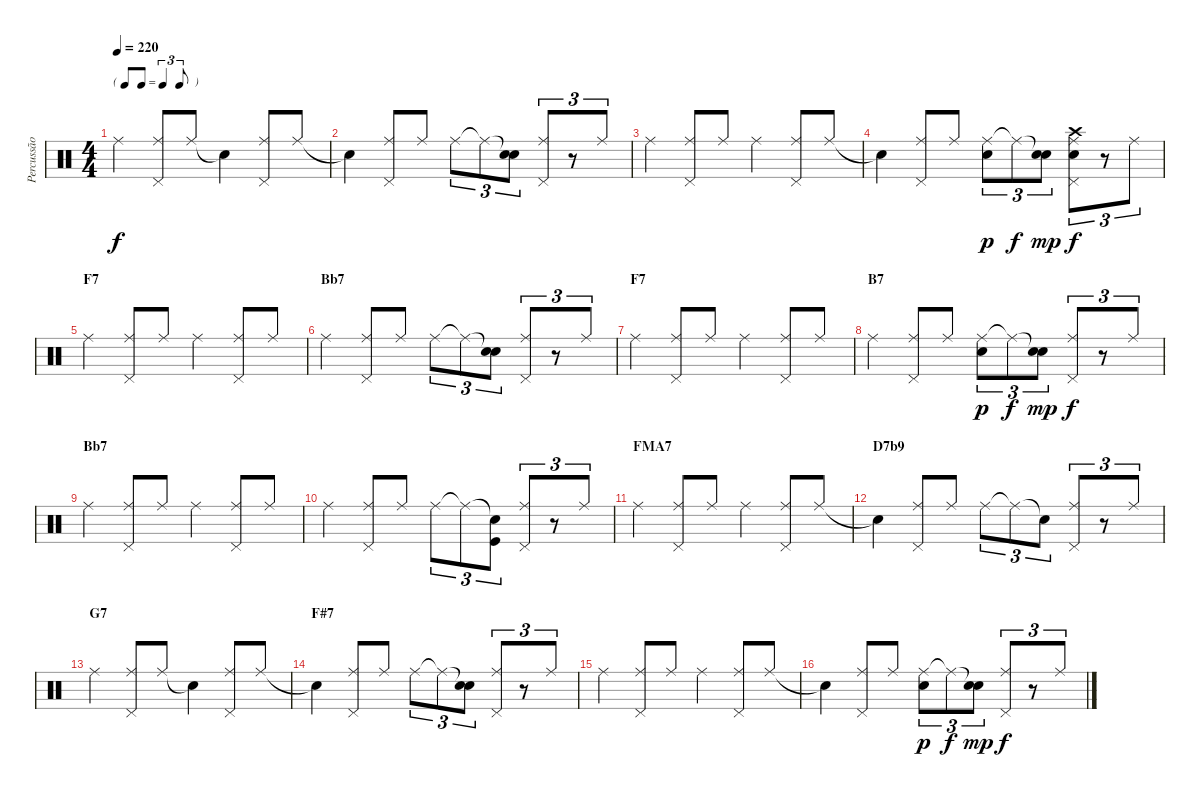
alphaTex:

\track ("Percussão" "Percussão") {instrument percussion}
\staff {score}
\articulation defaults
\ts (4 4)
\tf triplet8th
\tempo 220
\clef neutral
\ks c "Ride (middle)".4{dy f}
("Ride (middle)" "Pedal Hi-Hat (hit)").8 "Ride (middle)".8 "Snare (hit)"{t}.4 ("Ride (middle)" "Pedal Hi-Hat (hit)").8 "Ride (middle)".8 |
"Snare (hit)"{t}.4 ("Ride (middle)" "Pedal Hi-Hat (hit)").8 "Ride (middle)".8 "Ride (middle)".8{tu (3 2)} "Ride (middle)"{t}.8{tu (3 2)} ("Snare (hit)"{t} "Electric Snare (hit)").8{tu (3 2)} ("Ride (middle)" "Pedal Hi-Hat (hit)").8{tu (3 2)} r.8{tu (3 2)} "Ride (middle)".8{tu (3 2)} |
"Ride (middle)".4 ("Ride (middle)" "Pedal Hi-Hat (hit)").8 "Ride (middle)".8 "Ride (middle)".4 ("Ride (middle)" "Pedal Hi-Hat (hit)").8 "Ride (middle)".8 |
"Snare (hit)"{t}.4 ("Ride (middle)" "Pedal Hi-Hat (hit)").8 "Ride (middle)".8 ("Ride (middle)" "Electric Snare (hit)").8{tu (3 2) dy p} "Ride (middle)"{t}.8{tu (3 2) dy f} ("Snare (hit)"{t} "Electric Snare (hit)").8{tu (3 2) dy mp} ("Ride (middle)" "Crash high (hit)" "Electric Snare (hit)" "Pedal Hi-Hat (hit)").8{tu (3 2) dy f} r.8{tu (3 2)} "Ride (middle)".8{tu (3 2)} |
\section ("" "F7")
"Ride (middle)".4 ("Ride (middle)" "Pedal Hi-Hat (hit)").8 "Ride (middle)".8 "Ride (middle)".4 ("Ride (middle)" "Pedal Hi-Hat (hit)").8 "Ride (middle)".8 |
\section ("" "Bb7")
"Ride (middle)".4 ("Ride (middle)" "Pedal Hi-Hat (hit)").8 "Ride (middle)".8 "Ride (middle)".8{tu (3 2)} "Ride (middle)"{t}.8{tu (3 2)} ("Snare (hit)"{t} "Electric Snare (hit)").8{tu (3 2)} ("Ride (middle)" "Pedal Hi-Hat (hit)").8{tu (3 2)} r.8{tu (3 2)} "Ride (middle)".8{tu (3 2)} |
\section ("" "F7")
"Ride (middle)".4 ("Ride (middle)" "Pedal Hi-Hat (hit)").8 "Ride (middle)".8 "Ride (middle)".4 ("Ride (middle)" "Pedal Hi-Hat (hit)").8 "Ride (middle)".8 |
\section ("" "B7")
"Ride (middle)".4 ("Ride (middle)" "Pedal Hi-Hat (hit)").8 "Ride (middle)".8 ("Ride (middle)" "Electric Snare (hit)").8{tu (3 2) dy p} "Ride (middle)"{t}.8{tu (3 2) dy f} ("Snare (hit)"{t} "Electric Snare (hit)").8{tu (3 2) dy mp} ("Ride (middle)" "Pedal Hi-Hat (hit)").8{tu (3 2) dy f} r.8{tu (3 2)} "Ride (middle)".8{tu (3 2)} |
\section ("" "Bb7")
"Ride (middle)".4 ("Ride (middle)" "Pedal Hi-Hat (hit)").8 "Ride (middle)".8 "Ride (middle)".4 ("Ride (middle)" "Pedal Hi-Hat (hit)").8 "Ride (middle)".8 |
"Ride (middle)".4 ("Ride (middle)" "Pedal Hi-Hat (hit)").8 "Ride (middle)".8 "Ride (middle)".8{tu (3 2)} "Ride (middle)"{t}.8{tu (3 2)} ("Snare (hit)"{t} "Kick (hit)").8{tu (3 2)} ("Ride (middle)" "Pedal Hi-Hat (hit)").8{tu (3 2)} r.8{tu (3 2)} "Ride (middle)".8{tu (3 2)} |
\section ("" "FMA7")
"Ride (middle)".4 ("Ride (middle)" "Pedal Hi-Hat (hit)").8 "Ride (middle)".8 "Ride (middle)".4 ("Ride (middle)" "Pedal Hi-Hat (hit)").8 "Ride (middle)".8 |
\section ("" "D7b9")
"Snare (hit)"{t}.4 ("Ride (middle)" "Pedal Hi-Hat (hit)").8 "Ride (middle)".8 "Ride (middle)".8{tu (3 2)} "Ride (middle)"{t}.8{tu (3 2)} "Snare (hit)"{t}.8{tu (3 2)} ("Ride (middle)" "Pedal Hi-Hat (hit)").8{tu (3 2)} r.8{tu (3 2)} "Ride (middle)".8{tu (3 2)} |
\section ("" "G7")
"Ride (middle)".4 ("Ride (middle)" "Pedal Hi-Hat (hit)").8 "Ride (middle)".8 "Snare (hit)"{t}.4 ("Ride (middle)" "Pedal Hi-Hat (hit)").8 "Ride (middle)".8 |
\section ("" "F#7")
"Snare (hit)"{t}.4 ("Ride (middle)" "Pedal Hi-Hat (hit)").8 "Ride (middle)".8 "Ride (middle)".8{tu (3 2)} "Ride (middle)"{t}.8{tu (3 2)} ("Snare (hit)"{t} "Electric Snare (hit)").8{tu (3 2)} ("Ride (middle)" "Pedal Hi-Hat (hit)").8{tu (3 2)} r.8{tu (3 2)} "Ride (middle)".8{tu (3 2)} |
"Ride (middle)".4 ("Ride (middle)" "Pedal Hi-Hat (hit)").8 "Ride (middle)".8 "Ride (middle)".4 ("Ride (middle)" "Pedal Hi-Hat (hit)").8 "Ride (middle)".8 |
"Snare (hit)"{t}.4 ("Ride (middle)" "Pedal Hi-Hat (hit)").8 "Ride (middle)".8 ("Ride (middle)" "Electric Snare (hit)").8{tu (3 2) dy p} "Ride (middle)"{t}.8{tu (3 2) dy f} ("Snare (hit)"{t} "Electric Snare (hit)").8{tu (3 2) dy mp} ("Ride (middle)" "Pedal Hi-Hat (hit)").8{tu (3 2) dy f} r.8{tu (3 2)} "Ride (middle)".8{tu (3 2)}
